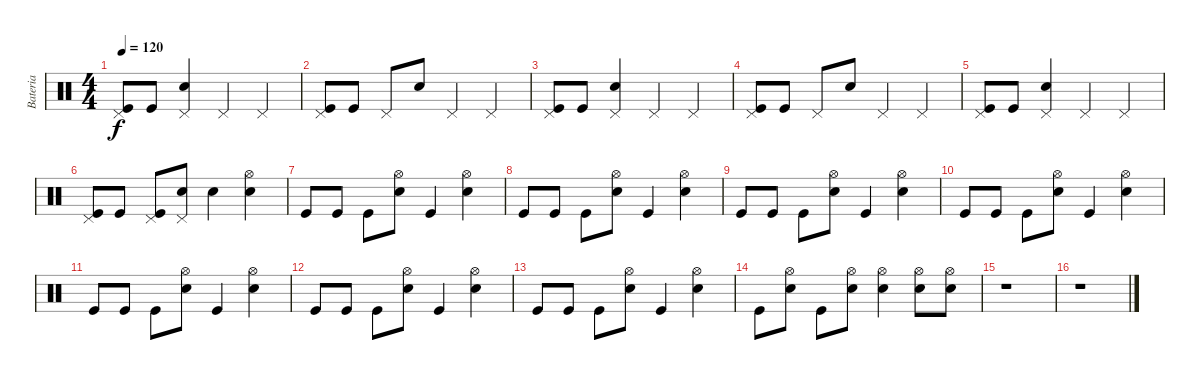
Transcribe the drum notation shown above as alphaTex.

\track ("Bateria" "Bateria") {instrument percussion}
\staff {score}
\articulation defaults
\ts (4 4)
\tempo 120
\clef neutral
\ks c
("Pedal Hi-Hat (hit)" "Kick (hit)").8{dy f} "Kick (hit)".8 ("Pedal Hi-Hat (hit)" "Snare (hit) 2").4 "Pedal Hi-Hat (hit)".4 "Pedal Hi-Hat (hit)".4 |
("Pedal Hi-Hat (hit)" "Kick (hit)").8 "Kick (hit)".8 "Pedal Hi-Hat (hit)".8 "Snare (hit) 2".8 "Pedal Hi-Hat (hit)".4 "Pedal Hi-Hat (hit)".4 |
("Pedal Hi-Hat (hit)" "Kick (hit)").8 "Kick (hit)".8 ("Pedal Hi-Hat (hit)" "Snare (hit) 2").4 "Pedal Hi-Hat (hit)".4 "Pedal Hi-Hat (hit)".4 |
("Pedal Hi-Hat (hit)" "Kick (hit)").8 "Kick (hit)".8 "Pedal Hi-Hat (hit)".8 "Snare (hit) 2".8 "Pedal Hi-Hat (hit)".4 "Pedal Hi-Hat (hit)".4 |
("Pedal Hi-Hat (hit)" "Kick (hit)").8 "Kick (hit)".8 ("Pedal Hi-Hat (hit)" "Snare (hit) 2").4 "Pedal Hi-Hat (hit)".4 "Pedal Hi-Hat (hit)".4 |
("Pedal Hi-Hat (hit)" "Kick (hit)").8 "Kick (hit)".8 ("Pedal Hi-Hat (hit)" "Kick (hit)").8 ("Pedal Hi-Hat (hit)" "Snare (hit) 2").8 "Snare (hit) 2".4 ("Hi-Hat (open)" "Snare (hit) 2").4 |
"Kick (hit)".8 "Kick (hit)".8 "Kick (hit)".8 ("Hi-Hat (open)" "Snare (hit) 2").8 "Kick (hit)".4 ("Hi-Hat (open)" "Snare (hit) 2").4 |
"Kick (hit)".8 "Kick (hit)".8 "Kick (hit)".8 ("Hi-Hat (open)" "Snare (hit) 2").8 "Kick (hit)".4 ("Hi-Hat (open)" "Snare (hit) 2").4 |
"Kick (hit)".8 "Kick (hit)".8 "Kick (hit)".8 ("Hi-Hat (open)" "Snare (hit) 2").8 "Kick (hit)".4 ("Hi-Hat (open)" "Snare (hit) 2").4 |
"Kick (hit)".8 "Kick (hit)".8 "Kick (hit)".8 ("Hi-Hat (open)" "Snare (hit) 2").8 "Kick (hit)".4 ("Hi-Hat (open)" "Snare (hit) 2").4 |
"Kick (hit)".8 "Kick (hit)".8 "Kick (hit)".8 ("Hi-Hat (open)" "Snare (hit) 2").8 "Kick (hit)".4 ("Hi-Hat (open)" "Snare (hit) 2").4 |
"Kick (hit)".8 "Kick (hit)".8 "Kick (hit)".8 ("Hi-Hat (open)" "Snare (hit) 2").8 "Kick (hit)".4 ("Hi-Hat (open)" "Snare (hit) 2").4 |
"Kick (hit)".8 "Kick (hit)".8 "Kick (hit)".8 ("Hi-Hat (open)" "Snare (hit) 2").8 "Kick (hit)".4 ("Hi-Hat (open)" "Snare (hit) 2").4 |
"Kick (hit)".8 ("Hi-Hat (open)" "Snare (hit) 2").8 "Kick (hit)".8 ("Hi-Hat (open)" "Snare (hit) 2").8 ("Hi-Hat (open)" "Snare (hit) 2").4 ("Hi-Hat (open)" "Snare (hit) 2").8 ("Hi-Hat (open)" "Snare (hit) 2").8 |
r.1 |
r.1
